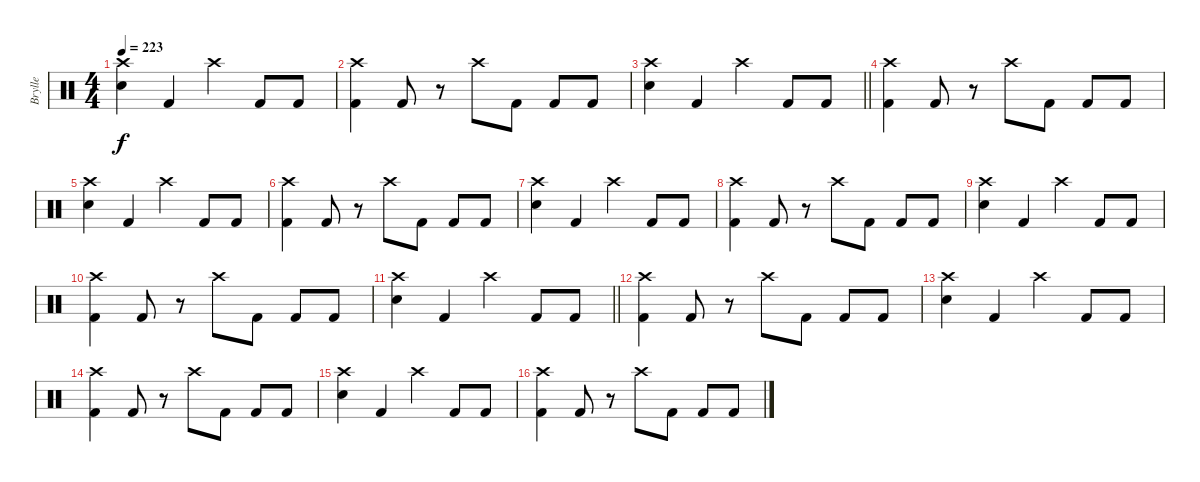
\track ("Brylle" "Brylle") {instrument percussion}
\staff {score}
\articulation defaults
\ts (4 4)
\tempo 223
\clef neutral
\ks c
("Crash high (hit)" "Electric Snare (hit)").4{dy f} "Kick (hit) 2".4 "Crash high (hit)".4 "Kick (hit) 2".8 "Kick (hit) 2".8 |
("Crash high (hit)" "Kick (hit) 2").4 "Kick (hit) 2".8 r.8 "Crash high (hit)".8 "Kick (hit) 2".8 "Kick (hit) 2".8 "Kick (hit) 2".8 |
\barLineRight lightlight
("Crash high (hit)" "Electric Snare (hit)").4 "Kick (hit) 2".4 "Crash high (hit)".4 "Kick (hit) 2".8 "Kick (hit) 2".8 |
("Crash high (hit)" "Kick (hit) 2").4{volume 12} "Kick (hit) 2".8 r.8 "Crash high (hit)".8 "Kick (hit) 2".8 "Kick (hit) 2".8 "Kick (hit) 2".8 |
("Crash high (hit)" "Electric Snare (hit)").4 "Kick (hit) 2".4 "Crash high (hit)".4 "Kick (hit) 2".8 "Kick (hit) 2".8 |
("Crash high (hit)" "Kick (hit) 2").4 "Kick (hit) 2".8 r.8 "Crash high (hit)".8 "Kick (hit) 2".8 "Kick (hit) 2".8 "Kick (hit) 2".8 |
("Crash high (hit)" "Electric Snare (hit)").4 "Kick (hit) 2".4 "Crash high (hit)".4 "Kick (hit) 2".8 "Kick (hit) 2".8 |
("Crash high (hit)" "Kick (hit) 2").4{volume 8} "Kick (hit) 2".8 r.8 "Crash high (hit)".8 "Kick (hit) 2".8 "Kick (hit) 2".8 "Kick (hit) 2".8 |
("Crash high (hit)" "Electric Snare (hit)").4 "Kick (hit) 2".4 "Crash high (hit)".4 "Kick (hit) 2".8 "Kick (hit) 2".8 |
("Crash high (hit)" "Kick (hit) 2").4 "Kick (hit) 2".8 r.8 "Crash high (hit)".8 "Kick (hit) 2".8 "Kick (hit) 2".8 "Kick (hit) 2".8 |
\barLineRight lightlight
("Crash high (hit)" "Electric Snare (hit)").4 "Kick (hit) 2".4 "Crash high (hit)".4 "Kick (hit) 2".8 "Kick (hit) 2".8 |
("Crash high (hit)" "Kick (hit) 2").4{volume 4} "Kick (hit) 2".8 r.8 "Crash high (hit)".8 "Kick (hit) 2".8 "Kick (hit) 2".8 "Kick (hit) 2".8 |
("Crash high (hit)" "Electric Snare (hit)").4 "Kick (hit) 2".4 "Crash high (hit)".4 "Kick (hit) 2".8 "Kick (hit) 2".8 |
("Crash high (hit)" "Kick (hit) 2").4 "Kick (hit) 2".8 r.8 "Crash high (hit)".8 "Kick (hit) 2".8 "Kick (hit) 2".8 "Kick (hit) 2".8 |
("Crash high (hit)" "Electric Snare (hit)").4 "Kick (hit) 2".4 "Crash high (hit)".4 "Kick (hit) 2".8 "Kick (hit) 2".8 |
("Crash high (hit)" "Kick (hit) 2").4{volume 0} "Kick (hit) 2".8 r.8 "Crash high (hit)".8 "Kick (hit) 2".8 "Kick (hit) 2".8 "Kick (hit) 2".8
